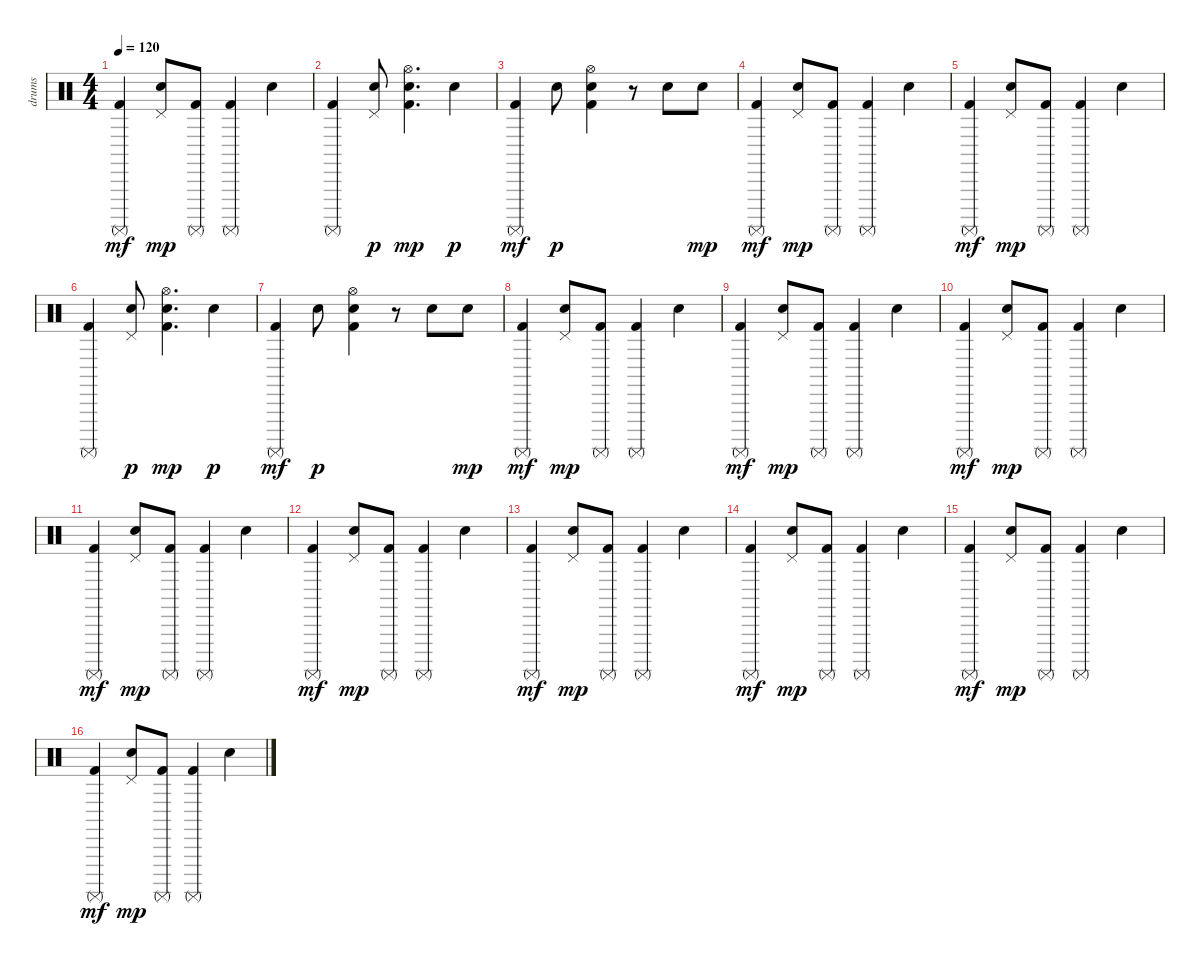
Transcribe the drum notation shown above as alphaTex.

\track ("drums" "drums") {instrument percussion}
\staff {score}
\articulation defaults
\ts (4 4)
\tempo 120
\clef neutral
\ks c
("Surdo (mute)" "Kick (hit) 2").4{dy mf} ("Snare (hit) 2" "Pedal Hi-Hat (hit)").8{dy mp} ("Kick (hit) 2" "Surdo (mute)").8 ("Kick (hit) 2" "Surdo (mute)").4 "Snare (hit) 2".4 |
("Surdo (mute)" "Kick (hit) 2").4 ("Snare (hit) 2" "Pedal Hi-Hat (hit)").8{dy p} ("Kick (hit) 2" "Snare (hit) 2" "Hi-Hat (open)").4{d dy mp} "Snare (hit) 2".4{dy p} |
("Surdo (mute)" "Kick (hit) 2").4{dy mf} "Snare (hit) 2".8{dy p} ("Snare (hit) 2" "Kick (hit) 2" "Hi-Hat (open)").4 r.8 "Snare (hit) 2".8 "Snare (hit) 2".8{dy mp} |
("Surdo (mute)" "Kick (hit) 2").4{dy mf} ("Snare (hit) 2" "Pedal Hi-Hat (hit)").8{dy mp} ("Kick (hit) 2" "Surdo (mute)").8 ("Kick (hit) 2" "Surdo (mute)").4 "Snare (hit) 2".4 |
("Surdo (mute)" "Kick (hit) 2").4{dy mf} ("Snare (hit) 2" "Pedal Hi-Hat (hit)").8{dy mp} ("Kick (hit) 2" "Surdo (mute)").8 ("Kick (hit) 2" "Surdo (mute)").4 "Snare (hit) 2".4 |
("Surdo (mute)" "Kick (hit) 2").4 ("Snare (hit) 2" "Pedal Hi-Hat (hit)").8{dy p} ("Kick (hit) 2" "Snare (hit) 2" "Hi-Hat (open)").4{d dy mp} "Snare (hit) 2".4{dy p} |
("Surdo (mute)" "Kick (hit) 2").4{dy mf} "Snare (hit) 2".8{dy p} ("Snare (hit) 2" "Kick (hit) 2" "Hi-Hat (open)").4 r.8 "Snare (hit) 2".8 "Snare (hit) 2".8{dy mp} |
("Surdo (mute)" "Kick (hit) 2").4{dy mf} ("Snare (hit) 2" "Pedal Hi-Hat (hit)").8{dy mp} ("Kick (hit) 2" "Surdo (mute)").8 ("Kick (hit) 2" "Surdo (mute)").4 "Snare (hit) 2".4 |
("Surdo (mute)" "Kick (hit) 2").4{dy mf} ("Snare (hit) 2" "Pedal Hi-Hat (hit)").8{dy mp} ("Kick (hit) 2" "Surdo (mute)").8 ("Kick (hit) 2" "Surdo (mute)").4 "Snare (hit) 2".4 |
("Surdo (mute)" "Kick (hit) 2").4{dy mf} ("Snare (hit) 2" "Pedal Hi-Hat (hit)").8{dy mp} ("Kick (hit) 2" "Surdo (mute)").8 ("Kick (hit) 2" "Surdo (mute)").4 "Snare (hit) 2".4 |
("Surdo (mute)" "Kick (hit) 2").4{dy mf} ("Snare (hit) 2" "Pedal Hi-Hat (hit)").8{dy mp} ("Kick (hit) 2" "Surdo (mute)").8 ("Kick (hit) 2" "Surdo (mute)").4 "Snare (hit) 2".4 |
("Surdo (mute)" "Kick (hit) 2").4{dy mf} ("Snare (hit) 2" "Pedal Hi-Hat (hit)").8{dy mp} ("Kick (hit) 2" "Surdo (mute)").8 ("Kick (hit) 2" "Surdo (mute)").4 "Snare (hit) 2".4 |
("Surdo (mute)" "Kick (hit) 2").4{dy mf} ("Snare (hit) 2" "Pedal Hi-Hat (hit)").8{dy mp} ("Kick (hit) 2" "Surdo (mute)").8 ("Kick (hit) 2" "Surdo (mute)").4 "Snare (hit) 2".4 |
("Surdo (mute)" "Kick (hit) 2").4{dy mf} ("Snare (hit) 2" "Pedal Hi-Hat (hit)").8{dy mp} ("Kick (hit) 2" "Surdo (mute)").8 ("Kick (hit) 2" "Surdo (mute)").4 "Snare (hit) 2".4 |
("Surdo (mute)" "Kick (hit) 2").4{dy mf} ("Snare (hit) 2" "Pedal Hi-Hat (hit)").8{dy mp} ("Kick (hit) 2" "Surdo (mute)").8 ("Kick (hit) 2" "Surdo (mute)").4 "Snare (hit) 2".4 |
("Surdo (mute)" "Kick (hit) 2").4{dy mf} ("Snare (hit) 2" "Pedal Hi-Hat (hit)").8{dy mp} ("Kick (hit) 2" "Surdo (mute)").8 ("Kick (hit) 2" "Surdo (mute)").4 "Snare (hit) 2".4
